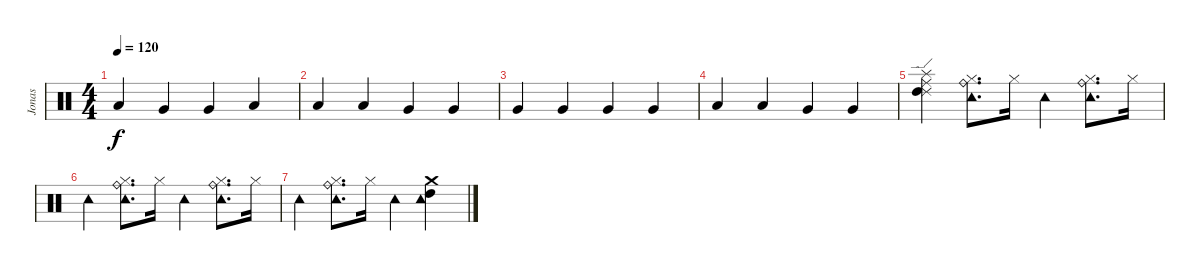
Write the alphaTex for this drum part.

\track ("Jonas" "Jonas") {instrument percussion}
\staff {score}
\articulation defaults
\ts (4 4)
\tempo 120
\clef neutral
\ks c "Low Floor Tom (hit)".4{dy f} "Very Low Tom (hit)".4 "Very Low Tom (hit)".4 "Low Floor Tom (hit)".4
|
"Low Floor Tom (hit)".4 "Low Floor Tom (hit)".4 "Very Low Tom (hit)".4 "Very Low Tom (hit)".4 |
"Very Low Tom (hit)".4 "Very Low Tom (hit)".4 "Very Low Tom (hit)".4 "Very Low Tom (hit)".4 |
"Low Floor Tom (hit)".4 "Low Floor Tom (hit)".4 "Very Low Tom (hit)".4 "Very Low Tom (hit)".4 |
("Splash (hit)" "Ride (middle)" "Ride (edge) 2" "High Tom (hit)").4 ("Hi-Hat (closed)" "Tambourine (hit)" "Ride (bell)").8{d} "Hi-Hat (closed)".16 "Tambourine (hit)".4 ("Hi-Hat (closed)" "Tambourine (hit)" "Ride (bell)").8{d} "Hi-Hat (closed)".16 |
"Tambourine (hit)".4 ("Hi-Hat (closed)" "Tambourine (hit)" "Ride (bell)").8{d} "Hi-Hat (closed)".16 "Tambourine (hit)".4 ("Hi-Hat (closed)" "Tambourine (hit)" "Ride (bell)").8{d} "Hi-Hat (closed)".16 |
"Tambourine (hit)".4 ("Hi-Hat (closed)" "Tambourine (hit)" "Ride (bell)").8{d} "Hi-Hat (closed)".16 "Tambourine (hit)".4 ("High Tom (hit)" "Crash medium (hit)" "Tambourine (hit)").4
